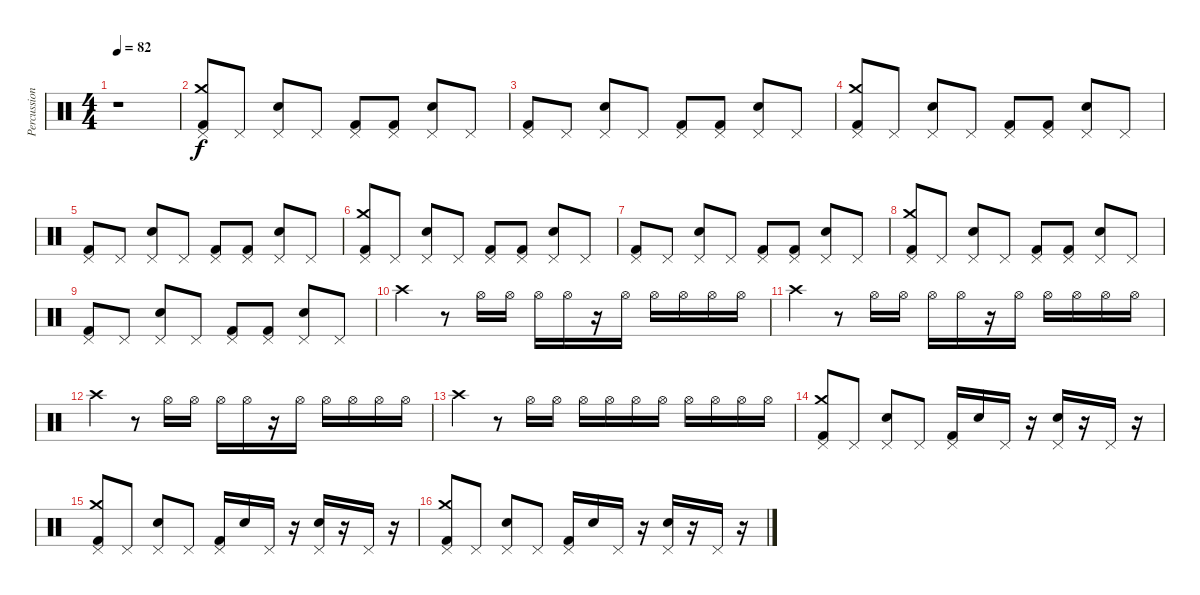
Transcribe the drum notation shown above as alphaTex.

\track ("Percussion" "Percussion") {instrument percussion}
\staff {score}
\articulation defaults
\ts (4 4)
\tempo 82
\clef neutral
\ks c
r.1{dy f} |
("Pedal Hi-Hat (hit)" "Crash medium (hit)" "Kick (hit) 2").8 "Pedal Hi-Hat (hit)".8 ("Pedal Hi-Hat (hit)" "Electric Snare (hit)").8 "Pedal Hi-Hat (hit)".8 ("Pedal Hi-Hat (hit)" "Kick (hit) 2").8 ("Pedal Hi-Hat (hit)" "Kick (hit) 2").8 ("Pedal Hi-Hat (hit)" "Electric Snare (hit)").8 "Pedal Hi-Hat (hit)".8 |
("Pedal Hi-Hat (hit)" "Kick (hit) 2").8 "Pedal Hi-Hat (hit)".8 ("Pedal Hi-Hat (hit)" "Electric Snare (hit)").8 "Pedal Hi-Hat (hit)".8 ("Pedal Hi-Hat (hit)" "Kick (hit) 2").8 ("Pedal Hi-Hat (hit)" "Kick (hit) 2").8 ("Pedal Hi-Hat (hit)" "Electric Snare (hit)").8 "Pedal Hi-Hat (hit)".8 |
("Pedal Hi-Hat (hit)" "Crash medium (hit)" "Kick (hit) 2").8 "Pedal Hi-Hat (hit)".8 ("Pedal Hi-Hat (hit)" "Electric Snare (hit)").8 "Pedal Hi-Hat (hit)".8 ("Pedal Hi-Hat (hit)" "Kick (hit) 2").8 ("Pedal Hi-Hat (hit)" "Kick (hit) 2").8 ("Pedal Hi-Hat (hit)" "Electric Snare (hit)").8 "Pedal Hi-Hat (hit)".8 |
("Pedal Hi-Hat (hit)" "Kick (hit) 2").8 "Pedal Hi-Hat (hit)".8 ("Pedal Hi-Hat (hit)" "Electric Snare (hit)").8 "Pedal Hi-Hat (hit)".8 ("Pedal Hi-Hat (hit)" "Kick (hit) 2").8 ("Pedal Hi-Hat (hit)" "Kick (hit) 2").8 ("Pedal Hi-Hat (hit)" "Electric Snare (hit)").8 "Pedal Hi-Hat (hit)".8 |
("Pedal Hi-Hat (hit)" "Crash medium (hit)" "Kick (hit) 2").8 "Pedal Hi-Hat (hit)".8 ("Pedal Hi-Hat (hit)" "Electric Snare (hit)").8 "Pedal Hi-Hat (hit)".8 ("Pedal Hi-Hat (hit)" "Kick (hit) 2").8 ("Pedal Hi-Hat (hit)" "Kick (hit) 2").8 ("Pedal Hi-Hat (hit)" "Electric Snare (hit)").8 "Pedal Hi-Hat (hit)".8 |
("Pedal Hi-Hat (hit)" "Kick (hit) 2").8 "Pedal Hi-Hat (hit)".8 ("Pedal Hi-Hat (hit)" "Electric Snare (hit)").8 "Pedal Hi-Hat (hit)".8 ("Pedal Hi-Hat (hit)" "Kick (hit) 2").8 ("Pedal Hi-Hat (hit)" "Kick (hit) 2").8 ("Pedal Hi-Hat (hit)" "Electric Snare (hit)").8 "Pedal Hi-Hat (hit)".8 |
("Pedal Hi-Hat (hit)" "Crash medium (hit)" "Kick (hit) 2").8 "Pedal Hi-Hat (hit)".8 ("Pedal Hi-Hat (hit)" "Electric Snare (hit)").8 "Pedal Hi-Hat (hit)".8 ("Pedal Hi-Hat (hit)" "Kick (hit) 2").8 ("Pedal Hi-Hat (hit)" "Kick (hit) 2").8 ("Pedal Hi-Hat (hit)" "Electric Snare (hit)").8 "Pedal Hi-Hat (hit)".8 |
("Pedal Hi-Hat (hit)" "Kick (hit) 2").8 "Pedal Hi-Hat (hit)".8 ("Pedal Hi-Hat (hit)" "Electric Snare (hit)").8 "Pedal Hi-Hat (hit)".8 ("Pedal Hi-Hat (hit)" "Kick (hit) 2").8 ("Pedal Hi-Hat (hit)" "Kick (hit) 2").8 ("Pedal Hi-Hat (hit)" "Electric Snare (hit)").8 "Pedal Hi-Hat (hit)".8 |
"Crash high (hit)".4 r.8 "Hi-Hat (open)".16 "Hi-Hat (open)".16 "Hi-Hat (open)".16 "Hi-Hat (open)".16 r.16 "Hi-Hat (open)".16 "Hi-Hat (open)".16 "Hi-Hat (open)".16 "Hi-Hat (open)".16 "Hi-Hat (open)".16 |
"Crash high (hit)".4 r.8 "Hi-Hat (open)".16 "Hi-Hat (open)".16 "Hi-Hat (open)".16 "Hi-Hat (open)".16 r.16 "Hi-Hat (open)".16 "Hi-Hat (open)".16 "Hi-Hat (open)".16 "Hi-Hat (open)".16 "Hi-Hat (open)".16 |
"Crash high (hit)".4 r.8 "Hi-Hat (open)".16 "Hi-Hat (open)".16 "Hi-Hat (open)".16 "Hi-Hat (open)".16 r.16 "Hi-Hat (open)".16 "Hi-Hat (open)".16 "Hi-Hat (open)".16 "Hi-Hat (open)".16 "Hi-Hat (open)".16 |
"Crash high (hit)".4 r.8 "Hi-Hat (open)".16 "Hi-Hat (open)".16 "Hi-Hat (open)".16 "Hi-Hat (open)".16 "Hi-Hat (open)".16 "Hi-Hat (open)".16 "Hi-Hat (open)".16 "Hi-Hat (open)".16 "Hi-Hat (open)".16 "Hi-Hat (open)".16 |
("Pedal Hi-Hat (hit)" "Crash medium (hit)" "Kick (hit) 2").8 "Pedal Hi-Hat (hit)".8 ("Pedal Hi-Hat (hit)" "Electric Snare (hit)").8 "Pedal Hi-Hat (hit)".8 ("Pedal Hi-Hat (hit)" "Kick (hit) 2").16 "Electric Snare (hit)".16 "Pedal Hi-Hat (hit)".16 r.16 ("Pedal Hi-Hat (hit)" "Electric Snare (hit)").16 r.16 "Pedal Hi-Hat (hit)".16 r.16 |
("Pedal Hi-Hat (hit)" "Crash medium (hit)" "Kick (hit) 2").8 "Pedal Hi-Hat (hit)".8 ("Pedal Hi-Hat (hit)" "Electric Snare (hit)").8 "Pedal Hi-Hat (hit)".8 ("Pedal Hi-Hat (hit)" "Kick (hit) 2").16 "Electric Snare (hit)".16 "Pedal Hi-Hat (hit)".16 r.16 ("Pedal Hi-Hat (hit)" "Electric Snare (hit)").16 r.16 "Pedal Hi-Hat (hit)".16 r.16 |
("Pedal Hi-Hat (hit)" "Crash medium (hit)" "Kick (hit) 2").8 "Pedal Hi-Hat (hit)".8 ("Pedal Hi-Hat (hit)" "Electric Snare (hit)").8 "Pedal Hi-Hat (hit)".8 ("Pedal Hi-Hat (hit)" "Kick (hit) 2").16 "Electric Snare (hit)".16 "Pedal Hi-Hat (hit)".16 r.16 ("Pedal Hi-Hat (hit)" "Electric Snare (hit)").16 r.16 "Pedal Hi-Hat (hit)".16 r.16
